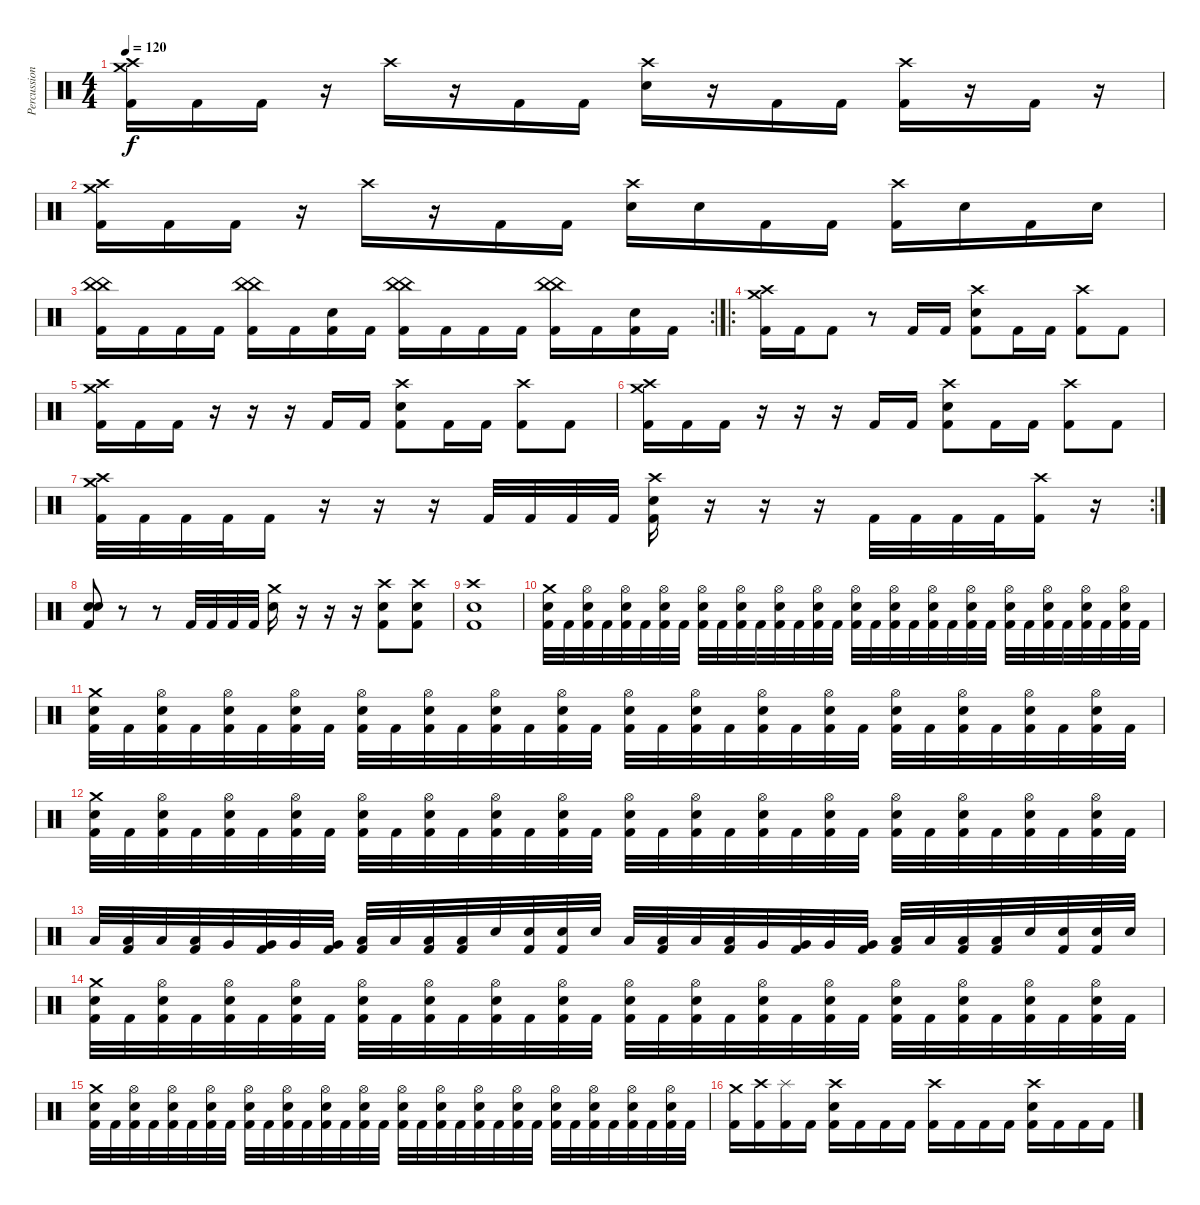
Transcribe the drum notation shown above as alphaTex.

\track ("Percussion" "Percussion") {instrument percussion bank 177}
\staff
\articulation defaults
\ts (4 4)
\tempo 120
\clef neutral
\ks c
("Crash medium (hit)" "Crash high (hit)" "Kick (hit) 2").16{dy f} "Kick (hit) 2".16 "Kick (hit) 2".16 r.16 "Crash high (hit)".16 r.16 "Kick (hit) 2".16 "Kick (hit) 2".16 ("Crash high (hit)" "Electric Snare (hit)").16 r.16 "Kick (hit) 2".16 "Kick (hit) 2".16 ("Crash high (hit)" "Kick (hit) 2").16 r.16 "Kick (hit) 2".16 r.16 |
("Crash medium (hit)" "Crash high (hit)" "Kick (hit) 2").16 "Kick (hit) 2".16 "Kick (hit) 2".16 r.16 "Crash high (hit)".16 r.16 "Kick (hit) 2".16 "Kick (hit) 2".16 ("Crash high (hit)" "Electric Snare (hit)").16 "Electric Snare (hit)".16 "Kick (hit) 2".16 "Kick (hit) 2".16 ("Crash high (hit)" "Kick (hit) 2").16 "Electric Snare (hit)".16 "Kick (hit) 2".16 "Electric Snare (hit)".16 |
\rc 2
("China (hit)" "China (hit)" "Kick (hit) 2").16 "Kick (hit) 2".16 "Kick (hit) 2".16 "Kick (hit) 2".16 ("China (hit)" "China (hit)" "Kick (hit) 2").16 "Kick (hit) 2".16 ("Electric Snare (hit)" "Kick (hit) 2").16 "Kick (hit) 2".16 ("China (hit)" "China (hit)" "Kick (hit) 2").16 "Kick (hit) 2".16 "Kick (hit) 2".16 "Kick (hit) 2".16 ("China (hit)" "China (hit)" "Kick (hit) 2").16 "Kick (hit) 2".16 ("Electric Snare (hit)" "Kick (hit) 2").16 "Kick (hit) 2".16 |
\ro
("Crash medium (hit)" "Crash high (hit)" "Kick (hit) 2").16 "Kick (hit) 2".16 "Kick (hit) 2".8 r.8 "Kick (hit) 2".16 "Kick (hit) 2".16 ("Crash high (hit)" "Electric Snare (hit)" "Kick (hit) 2").8 "Kick (hit) 2".16 "Kick (hit) 2".16 ("Crash high (hit)" "Kick (hit) 2").8 "Kick (hit) 2".8 |
("Crash medium (hit)" "Crash high (hit)" "Kick (hit) 2").16 "Kick (hit) 2".16 "Kick (hit) 2".16 r.16 r.16 r.16 "Kick (hit) 2".16 "Kick (hit) 2".16 ("Crash high (hit)" "Electric Snare (hit)" "Kick (hit) 2").8 "Kick (hit) 2".16 "Kick (hit) 2".16 ("Crash high (hit)" "Kick (hit) 2").8 "Kick (hit) 2".8 |
("Crash medium (hit)" "Crash high (hit)" "Kick (hit) 2").16 "Kick (hit) 2".16 "Kick (hit) 2".16 r.16 r.16 r.16 "Kick (hit) 2".16 "Kick (hit) 2".16 ("Crash high (hit)" "Electric Snare (hit)" "Kick (hit) 2").8 "Kick (hit) 2".16 "Kick (hit) 2".16 ("Crash high (hit)" "Kick (hit) 2").8 "Kick (hit) 2".8 |
\rc 2
("Crash medium (hit)" "Crash high (hit)" "Kick (hit) 2").32 "Kick (hit) 2".32 "Kick (hit) 2".32 "Kick (hit) 2".32 "Kick (hit) 2".16 r.16 r.16 r.16 "Kick (hit) 2".32 "Kick (hit) 2".32 "Kick (hit) 2".32 "Kick (hit) 2".32 ("Crash high (hit)" "Electric Snare (hit)" "Kick (hit) 2").16 r.16 r.16 r.16 "Kick (hit) 2".32 "Kick (hit) 2".32 "Kick (hit) 2".32 "Kick (hit) 2".32 ("Crash high (hit)" "Kick (hit) 2").16 r.16 |
("Electric Snare (hit)" "Electric Snare (hit)" "Kick (hit) 2").8 r.8 r.8 "Kick (hit) 2".32 "Kick (hit) 2".32 "Kick (hit) 2".32 "Kick (hit) 2".32 ("Crash medium (hit)" "Electric Snare (hit)").16 r.16 r.16 r.16 ("Crash high (hit)" "Electric Snare (hit)" "Kick (hit) 2").8 ("Crash high (hit)" "Electric Snare (hit)" "Kick (hit) 2").8 |
("Crash high (hit)" "Electric Snare (hit)" "Kick (hit) 2").1 |
("Crash medium (hit)" "Electric Snare (hit)" "Kick (hit) 2").32 "Kick (hit) 2".32 ("Hi-Hat (open)" "Electric Snare (hit)" "Kick (hit) 2").32 "Kick (hit) 2".32 ("Hi-Hat (open)" "Electric Snare (hit)" "Kick (hit) 2").32 "Kick (hit) 2".32 ("Hi-Hat (open)" "Electric Snare (hit)" "Kick (hit) 2").32 "Kick (hit) 2".32 ("Hi-Hat (open)" "Electric Snare (hit)" "Kick (hit) 2").32 "Kick (hit) 2".32 ("Hi-Hat (open)" "Electric Snare (hit)" "Kick (hit) 2").32 "Kick (hit) 2".32 ("Hi-Hat (open)" "Electric Snare (hit)" "Kick (hit) 2").32 "Kick (hit) 2".32 ("Hi-Hat (open)" "Electric Snare (hit)" "Kick (hit) 2").32 "Kick (hit) 2".32 ("Hi-Hat (open)" "Electric Snare (hit)" "Kick (hit) 2").32 "Kick (hit) 2".32 ("Hi-Hat (open)" "Electric Snare (hit)" "Kick (hit) 2").32 "Kick (hit) 2".32 ("Hi-Hat (open)" "Electric Snare (hit)" "Kick (hit) 2").32 "Kick (hit) 2".32 ("Hi-Hat (open)" "Electric Snare (hit)" "Kick (hit) 2").32 "Kick (hit) 2".32 ("Hi-Hat (open)" "Electric Snare (hit)" "Kick (hit) 2").32 "Kick (hit) 2".32 ("Hi-Hat (open)" "Electric Snare (hit)" "Kick (hit) 2").32 "Kick (hit) 2".32 ("Hi-Hat (open)" "Electric Snare (hit)" "Kick (hit) 2").32 "Kick (hit) 2".32 ("Hi-Hat (open)" "Electric Snare (hit)" "Kick (hit) 2").32 "Kick (hit) 2".32 |
("Crash medium (hit)" "Electric Snare (hit)" "Kick (hit) 2").32 "Kick (hit) 2".32 ("Hi-Hat (open)" "Electric Snare (hit)" "Kick (hit) 2").32 "Kick (hit) 2".32 ("Hi-Hat (open)" "Electric Snare (hit)" "Kick (hit) 2").32 "Kick (hit) 2".32 ("Hi-Hat (open)" "Electric Snare (hit)" "Kick (hit) 2").32 "Kick (hit) 2".32 ("Hi-Hat (open)" "Electric Snare (hit)" "Kick (hit) 2").32 "Kick (hit) 2".32 ("Hi-Hat (open)" "Electric Snare (hit)" "Kick (hit) 2").32 "Kick (hit) 2".32 ("Hi-Hat (open)" "Electric Snare (hit)" "Kick (hit) 2").32 "Kick (hit) 2".32 ("Hi-Hat (open)" "Electric Snare (hit)" "Kick (hit) 2").32 "Kick (hit) 2".32 ("Hi-Hat (open)" "Electric Snare (hit)" "Kick (hit) 2").32 "Kick (hit) 2".32 ("Hi-Hat (open)" "Electric Snare (hit)" "Kick (hit) 2").32 "Kick (hit) 2".32 ("Hi-Hat (open)" "Electric Snare (hit)" "Kick (hit) 2").32 "Kick (hit) 2".32 ("Hi-Hat (open)" "Electric Snare (hit)" "Kick (hit) 2").32 "Kick (hit) 2".32 ("Hi-Hat (open)" "Electric Snare (hit)" "Kick (hit) 2").32 "Kick (hit) 2".32 ("Hi-Hat (open)" "Electric Snare (hit)" "Kick (hit) 2").32 "Kick (hit) 2".32 ("Hi-Hat (open)" "Electric Snare (hit)" "Kick (hit) 2").32 "Kick (hit) 2".32 ("Hi-Hat (open)" "Electric Snare (hit)" "Kick (hit) 2").32 "Kick (hit) 2".32 |
("Crash medium (hit)" "Electric Snare (hit)" "Kick (hit) 2").32 "Kick (hit) 2".32 ("Hi-Hat (open)" "Electric Snare (hit)" "Kick (hit) 2").32 "Kick (hit) 2".32 ("Hi-Hat (open)" "Electric Snare (hit)" "Kick (hit) 2").32 "Kick (hit) 2".32 ("Hi-Hat (open)" "Electric Snare (hit)" "Kick (hit) 2").32 "Kick (hit) 2".32 ("Hi-Hat (open)" "Electric Snare (hit)" "Kick (hit) 2").32 "Kick (hit) 2".32 ("Hi-Hat (open)" "Electric Snare (hit)" "Kick (hit) 2").32 "Kick (hit) 2".32 ("Hi-Hat (open)" "Electric Snare (hit)" "Kick (hit) 2").32 "Kick (hit) 2".32 ("Hi-Hat (open)" "Electric Snare (hit)" "Kick (hit) 2").32 "Kick (hit) 2".32 ("Hi-Hat (open)" "Electric Snare (hit)" "Kick (hit) 2").32 "Kick (hit) 2".32 ("Hi-Hat (open)" "Electric Snare (hit)" "Kick (hit) 2").32 "Kick (hit) 2".32 ("Hi-Hat (open)" "Electric Snare (hit)" "Kick (hit) 2").32 "Kick (hit) 2".32 ("Hi-Hat (open)" "Electric Snare (hit)" "Kick (hit) 2").32 "Kick (hit) 2".32 ("Hi-Hat (open)" "Electric Snare (hit)" "Kick (hit) 2").32 "Kick (hit) 2".32 ("Hi-Hat (open)" "Electric Snare (hit)" "Kick (hit) 2").32 "Kick (hit) 2".32 ("Hi-Hat (open)" "Electric Snare (hit)" "Kick (hit) 2").32 "Kick (hit) 2".32 ("Hi-Hat (open)" "Electric Snare (hit)" "Kick (hit) 2").32 "Kick (hit) 2".32 |
"Low Floor Tom (hit)".32 ("Low Floor Tom (hit)" "Kick (hit) 2").32 "Low Floor Tom (hit)".32 ("Low Floor Tom (hit)" "Kick (hit) 2").32 "Very Low Tom (hit)".32 ("Very Low Tom (hit)" "Kick (hit) 2").32 "Very Low Tom (hit)".32 ("Very Low Tom (hit)" "Kick (hit) 2").32 ("Low Tom (hit)" "Kick (hit) 2").32 "Low Tom (hit)".32 ("Low Tom (hit)" "Kick (hit) 2").32 ("Low Tom (hit)" "Kick (hit) 2").32 "Electric Snare (hit)".32 ("Electric Snare (hit)" "Kick (hit) 2").32 ("Electric Snare (hit)" "Kick (hit) 2").32 "Electric Snare (hit)".32 "Low Floor Tom (hit)".32 ("Low Floor Tom (hit)" "Kick (hit) 2").32 "Low Floor Tom (hit)".32 ("Low Floor Tom (hit)" "Kick (hit) 2").32 "Very Low Tom (hit)".32 ("Very Low Tom (hit)" "Kick (hit) 2").32 "Very Low Tom (hit)".32 ("Very Low Tom (hit)" "Kick (hit) 2").32 ("Low Tom (hit)" "Kick (hit) 2").32 "Low Tom (hit)".32 ("Low Tom (hit)" "Kick (hit) 2").32 ("Low Tom (hit)" "Kick (hit) 2").32 "Electric Snare (hit)".32 ("Electric Snare (hit)" "Kick (hit) 2").32 ("Electric Snare (hit)" "Kick (hit) 2").32 "Electric Snare (hit)".32 |
("Crash medium (hit)" "Electric Snare (hit)" "Kick (hit) 2").32 "Kick (hit) 2".32 ("Hi-Hat (open)" "Electric Snare (hit)" "Kick (hit) 2").32 "Kick (hit) 2".32 ("Hi-Hat (open)" "Electric Snare (hit)" "Kick (hit) 2").32 "Kick (hit) 2".32 ("Hi-Hat (open)" "Electric Snare (hit)" "Kick (hit) 2").32 "Kick (hit) 2".32 ("Hi-Hat (open)" "Electric Snare (hit)" "Kick (hit) 2").32 "Kick (hit) 2".32 ("Hi-Hat (open)" "Electric Snare (hit)" "Kick (hit) 2").32 "Kick (hit) 2".32 ("Hi-Hat (open)" "Electric Snare (hit)" "Kick (hit) 2").32 "Kick (hit) 2".32 ("Hi-Hat (open)" "Electric Snare (hit)" "Kick (hit) 2").32 "Kick (hit) 2".32 ("Hi-Hat (open)" "Electric Snare (hit)" "Kick (hit) 2").32 "Kick (hit) 2".32 ("Hi-Hat (open)" "Electric Snare (hit)" "Kick (hit) 2").32 "Kick (hit) 2".32 ("Hi-Hat (open)" "Electric Snare (hit)" "Kick (hit) 2").32 "Kick (hit) 2".32 ("Hi-Hat (open)" "Electric Snare (hit)" "Kick (hit) 2").32 "Kick (hit) 2".32 ("Hi-Hat (open)" "Electric Snare (hit)" "Kick (hit) 2").32 "Kick (hit) 2".32 ("Hi-Hat (open)" "Electric Snare (hit)" "Kick (hit) 2").32 "Kick (hit) 2".32 ("Hi-Hat (open)" "Electric Snare (hit)" "Kick (hit) 2").32 "Kick (hit) 2".32 ("Hi-Hat (open)" "Electric Snare (hit)" "Kick (hit) 2").32 "Kick (hit) 2".32 |
("Crash medium (hit)" "Electric Snare (hit)" "Kick (hit) 2").32 "Kick (hit) 2".32 ("Hi-Hat (open)" "Electric Snare (hit)" "Kick (hit) 2").32 "Kick (hit) 2".32 ("Hi-Hat (open)" "Electric Snare (hit)" "Kick (hit) 2").32 "Kick (hit) 2".32 ("Hi-Hat (open)" "Electric Snare (hit)" "Kick (hit) 2").32 "Kick (hit) 2".32 ("Hi-Hat (open)" "Electric Snare (hit)" "Kick (hit) 2").32 "Kick (hit) 2".32 ("Hi-Hat (open)" "Electric Snare (hit)" "Kick (hit) 2").32 "Kick (hit) 2".32 ("Hi-Hat (open)" "Electric Snare (hit)" "Kick (hit) 2").32 "Kick (hit) 2".32 ("Hi-Hat (open)" "Electric Snare (hit)" "Kick (hit) 2").32 "Kick (hit) 2".32 ("Hi-Hat (open)" "Electric Snare (hit)" "Kick (hit) 2").32 "Kick (hit) 2".32 ("Hi-Hat (open)" "Electric Snare (hit)" "Kick (hit) 2").32 "Kick (hit) 2".32 ("Hi-Hat (open)" "Electric Snare (hit)" "Kick (hit) 2").32 "Kick (hit) 2".32 ("Hi-Hat (open)" "Electric Snare (hit)" "Kick (hit) 2").32 "Kick (hit) 2".32 ("Hi-Hat (open)" "Electric Snare (hit)" "Kick (hit) 2").32 "Kick (hit) 2".32 ("Hi-Hat (open)" "Electric Snare (hit)" "Kick (hit) 2").32 "Kick (hit) 2".32 ("Hi-Hat (open)" "Electric Snare (hit)" "Kick (hit) 2").32 "Kick (hit) 2".32 ("Hi-Hat (open)" "Electric Snare (hit)" "Kick (hit) 2").32 "Kick (hit) 2".32 |
("Crash medium (hit)" "Kick (hit) 2").16 ("Crash high (hit)" "Kick (hit) 2").16 ("Splash (hit)" "Kick (hit) 2").16 "Kick (hit) 2".16 ("Crash high (hit)" "Electric Snare (hit)" "Kick (hit) 2").16 "Kick (hit) 2".16 "Kick (hit) 2".16 "Kick (hit) 2".16 ("Crash high (hit)" "Kick (hit) 2").16 "Kick (hit) 2".16 "Kick (hit) 2".16 "Kick (hit) 2".16 ("Crash high (hit)" "Electric Snare (hit)" "Kick (hit) 2").16 "Kick (hit) 2".16 "Kick (hit) 2".16 "Kick (hit) 2".16
